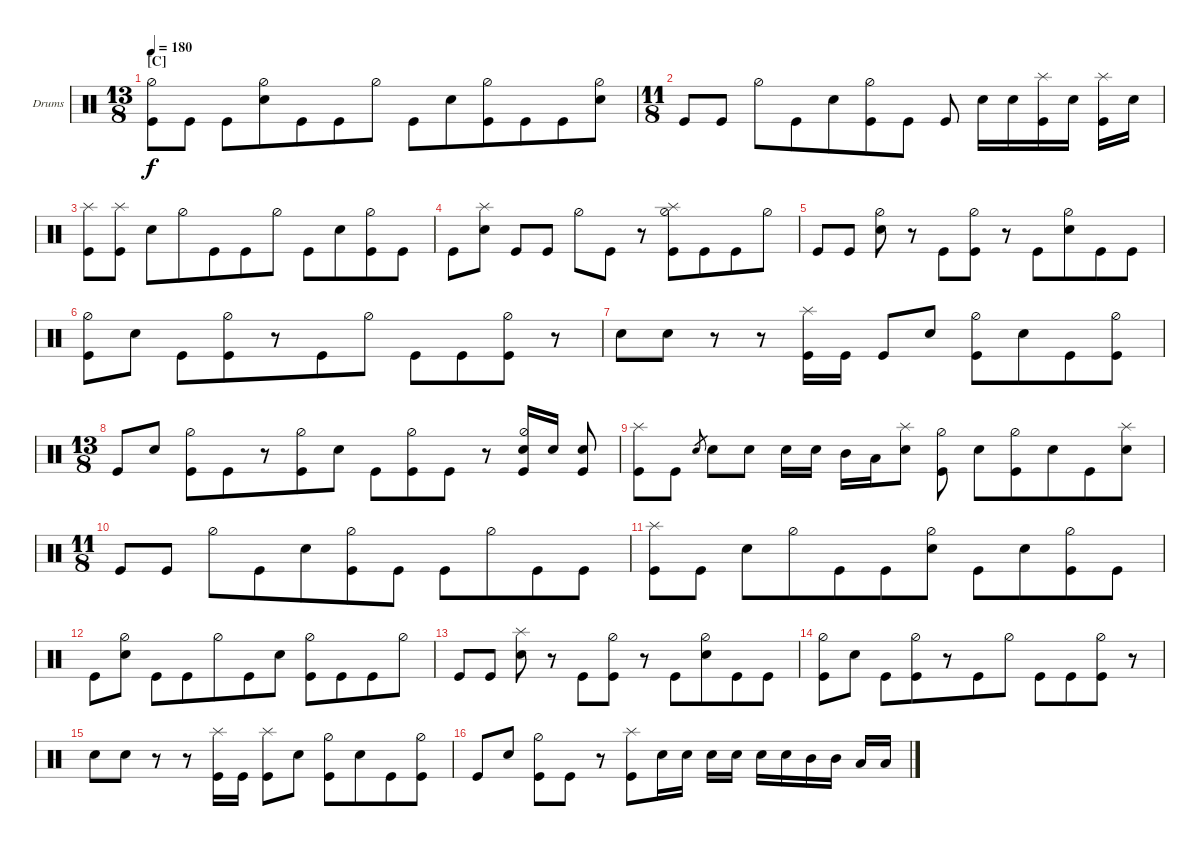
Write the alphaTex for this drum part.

\defaultSystemsLayout 4
\bracketExtendMode groupsimilarinstruments
\firstSystemTrackNameOrientation horizontal
\otherSystemsTrackNameOrientation horizontal
\track ("Drumkit" "Drums") {instrument percussion}
\staff {score}
\articulation defaults
\ts (13 8)
\section ("C" "")
\tempo 180
\clef neutral
\ks c
("Kick (hit)" "Hi-Hat (half)").8{dy f} "Kick (hit)".8 "Kick (hit)".8 ("Snare (hit) 2" "Hi-Hat (half)").8{beam merge} "Kick (hit)".8{beam merge} "Kick (hit)".8{beam merge} "Hi-Hat (half)".8{beam split} "Kick (hit)".8{beam merge} "Snare (hit) 2".8{beam merge} ("Kick (hit)" "Hi-Hat (half)").8{beam merge} "Kick (hit)".8{beam merge} "Kick (hit)".8{beam merge} ("Snare (hit) 2" "Hi-Hat (half)").8 |
\ts (11 8)
"Kick (hit)".8 "Kick (hit)".8 "Hi-Hat (half)".8 "Kick (hit)".8{beam merge} "Snare (hit) 2".8{beam merge} ("Kick (hit)" "Hi-Hat (half)").8{beam merge} "Kick (hit)".8{beam split} "Kick (hit)".8 "Snare (hit) 2".16 "Snare (hit) 2".16 ("Kick (hit)" "Splash (hit)").16 "Snare (hit) 2".16 ("Kick (hit)" "Splash (hit)").16 "Snare (hit) 2".16 |
("Kick (hit)" "Splash (hit)").8 ("Kick (hit)" "Splash (hit)").8 "Snare (hit) 2".8 "Hi-Hat (half)".8{beam merge} "Kick (hit)".8{beam merge} "Kick (hit)".8{beam merge} "Hi-Hat (half)".8{beam split} "Kick (hit)".8{beam merge} "Snare (hit) 2".8{beam merge} ("Kick (hit)" "Hi-Hat (half)").8{beam merge} "Kick (hit)".8 |
"Kick (hit)".8 ("Snare (hit) 2" "Splash (hit)").8 "Kick (hit)".8 "Kick (hit)".8 "Hi-Hat (half)".8 "Kick (hit)".8 r.8 ("Kick (hit)" "Splash (hit)" "Hi-Hat (half)").8{beam merge} "Kick (hit)".8{beam merge} "Kick (hit)".8{beam merge} "Hi-Hat (half)".8 |
"Kick (hit)".8 "Kick (hit)".8 ("Snare (hit) 2" "Hi-Hat (half)").8 r.8 "Kick (hit)".8 ("Kick (hit)" "Hi-Hat (half)").8 r.8 "Kick (hit)".8{beam merge} ("Snare (hit) 2" "Hi-Hat (half)").8{beam merge} "Kick (hit)".8{beam merge} "Kick (hit)".8 |
("Kick (hit)" "Hi-Hat (half)").8 "Snare (hit) 2".8 "Kick (hit)".8 ("Kick (hit)" "Hi-Hat (half)").8{beam merge} r.8{beam merge} "Kick (hit)".8{beam merge} "Hi-Hat (half)".8{beam split} "Kick (hit)".8{beam merge} "Kick (hit)".8{beam merge} ("Kick (hit)" "Hi-Hat (half)").8{beam merge} r.8 |
"Snare (hit) 2".8 "Snare (hit) 2".8 r.8 r.8 ("Kick (hit)" "Splash (hit)").16 "Kick (hit)".16{beam split} "Kick (hit)".8{beam merge} "Snare (hit) 2".8{beam split} ("Kick (hit)" "Hi-Hat (half)").8{beam merge} "Snare (hit) 2".8{beam merge} "Kick (hit)".8{beam merge} ("Kick (hit)" "Hi-Hat (half)").8 |
\ts (13 8)
"Kick (hit)".8 "Snare (hit) 2".8 ("Kick (hit)" "Hi-Hat (half)").8 "Kick (hit)".8{beam merge} r.8{beam merge} ("Kick (hit)" "Hi-Hat (half)").8{beam merge} "Snare (hit) 2".8{beam split} "Kick (hit)".8{beam merge} ("Kick (hit)" "Hi-Hat (half)").8{beam merge} "Kick (hit)".8 r.8 ("Kick (hit)" "Snare (hit) 2" "Hi-Hat (half)").16 "Snare (hit) 2".16 ("Kick (hit)" "Snare (hit) 2").8 |
("Kick (hit)" "Splash (hit)").8 "Kick (hit)".8 "Snare (hit) 2".8{gr} "Snare (hit) 2".8 "Snare (hit) 2".8 "Snare (hit) 2".16 "Snare (hit) 2".16{beam split} "Mid Tom (hit)".16 "Low Tom (hit)".16{beam merge} ("Snare (hit) 2" "Splash (hit)").8{beam split} ("Kick (hit)" "Hi-Hat (half)").8 "Snare (hit) 2".8 ("Kick (hit)" "Hi-Hat (half)").8{beam merge} "Snare (hit) 2".8{beam merge} "Kick (hit)".8{beam merge} ("Snare (hit) 2" "Splash (hit)").8 |
\ts (11 8)
"Kick (hit)".8 "Kick (hit)".8 "Hi-Hat (half)".8 "Kick (hit)".8{beam merge} "Snare (hit) 2".8{beam merge} ("Kick (hit)" "Hi-Hat (half)").8{beam merge} "Kick (hit)".8{beam split} "Kick (hit)".8{beam merge} "Hi-Hat (half)".8{beam merge} "Kick (hit)".8{beam merge} "Kick (hit)".8 |
("Kick (hit)" "Splash (hit)").8 "Kick (hit)".8 "Snare (hit) 2".8 "Hi-Hat (half)".8{beam merge} "Kick (hit)".8{beam merge} "Kick (hit)".8{beam merge} ("Snare (hit) 2" "Hi-Hat (half)").8{beam split} "Kick (hit)".8{beam merge} "Snare (hit) 2".8{beam merge} ("Kick (hit)" "Hi-Hat (half)").8{beam merge} "Kick (hit)".8 |
"Kick (hit)".8 ("Snare (hit) 2" "Hi-Hat (half)").8 "Kick (hit)".8 "Kick (hit)".8{beam merge} "Hi-Hat (half)".8{beam merge} "Kick (hit)".8{beam merge} "Snare (hit) 2".8{beam split} ("Kick (hit)" "Hi-Hat (half)").8{beam merge} "Kick (hit)".8{beam merge} "Kick (hit)".8{beam merge} "Hi-Hat (half)".8 |
"Kick (hit)".8 "Kick (hit)".8 ("Snare (hit) 2" "Splash (hit)").8 r.8 "Kick (hit)".8 ("Kick (hit)" "Hi-Hat (half)").8 r.8 "Kick (hit)".8{beam merge} ("Snare (hit) 2" "Hi-Hat (half)").8{beam merge} "Kick (hit)".8{beam merge} "Kick (hit)".8 |
("Kick (hit)" "Hi-Hat (half)").8 "Snare (hit) 2".8 "Kick (hit)".8 ("Kick (hit)" "Hi-Hat (half)").8{beam merge} r.8{beam merge} "Kick (hit)".8{beam merge} "Hi-Hat (half)".8{beam split} "Kick (hit)".8{beam merge} "Kick (hit)".8{beam merge} ("Kick (hit)" "Hi-Hat (half)").8 r.8 |
"Snare (hit) 2".8 "Snare (hit) 2".8 r.8 r.8 ("Kick (hit)" "Splash (hit)").16 "Kick (hit)".16{beam split} ("Kick (hit)" "Splash (hit)").8{beam merge} "Snare (hit) 2".8{beam split} ("Kick (hit)" "Hi-Hat (half)").8{beam merge} "Snare (hit) 2".8{beam merge} "Kick (hit)".8{beam merge} ("Kick (hit)" "Hi-Hat (half)").8 |
"Kick (hit)".8 "Snare (hit) 2".8 ("Kick (hit)" "Hi-Hat (half)").8 "Kick (hit)".8{beam split} r.8{beam split} ("Kick (hit)" "Splash (hit)").8{beam merge} "Snare (hit) 2".16{beam merge} "Snare (hit) 2".16{beam split} "Snare (hit) 2".16 "Snare (hit) 2".16 "Snare (hit) 2".16 "Snare (hit) 2".16 "Mid Tom (hit)".16 "Mid Tom (hit)".16 "Low Tom (hit)".16 "Low Tom (hit)".16
